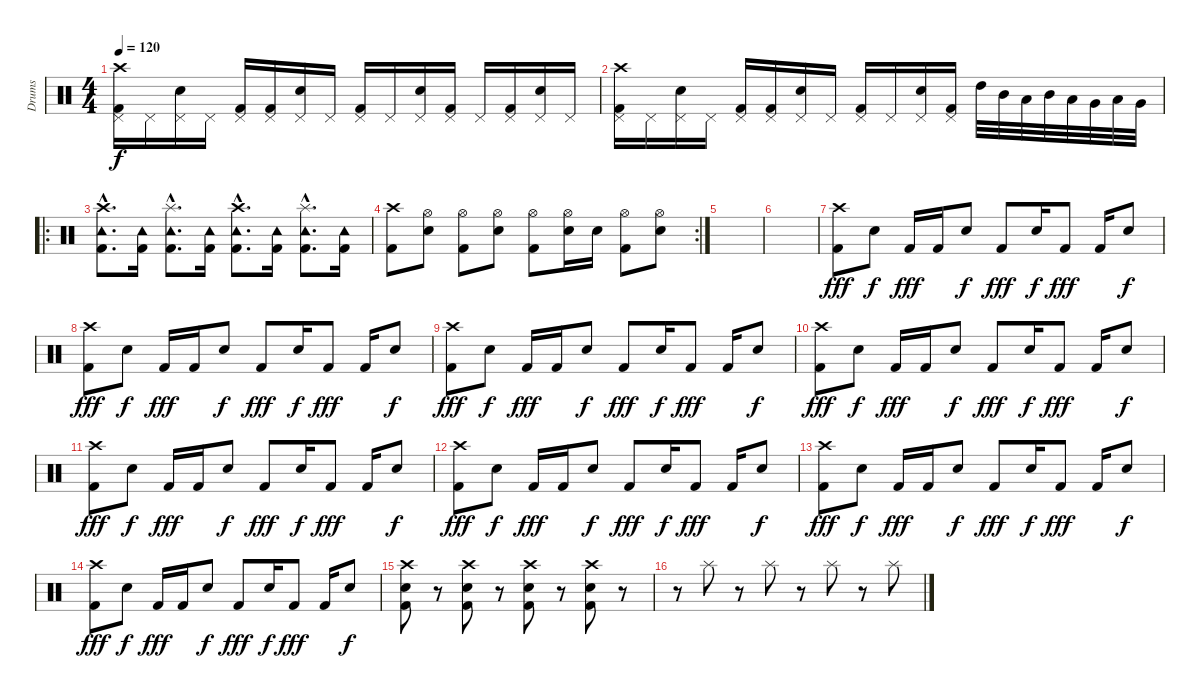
\track ("Drums" "Drums") {instrument percussion}
\staff {score}
\articulation defaults
\ts (4 4)
\tempo 120
\clef neutral
\ks c
("Crash high (hit)" "Pedal Hi-Hat (hit)" "Kick (hit) 2").16{dy f} "Pedal Hi-Hat (hit)".16 ("Pedal Hi-Hat (hit)" "Electric Snare (hit)").16 "Pedal Hi-Hat (hit)".16 ("Pedal Hi-Hat (hit)" "Kick (hit) 2").16 ("Pedal Hi-Hat (hit)" "Kick (hit) 2").16 ("Pedal Hi-Hat (hit)" "Electric Snare (hit)").16 "Pedal Hi-Hat (hit)".16 ("Pedal Hi-Hat (hit)" "Kick (hit) 2").16 "Pedal Hi-Hat (hit)".16 ("Pedal Hi-Hat (hit)" "Electric Snare (hit)").16 ("Pedal Hi-Hat (hit)" "Kick (hit) 2").16 "Pedal Hi-Hat (hit)".16 ("Pedal Hi-Hat (hit)" "Kick (hit) 2").16 ("Pedal Hi-Hat (hit)" "Electric Snare (hit)").16 "Pedal Hi-Hat (hit)".16 |
("Crash high (hit)" "Pedal Hi-Hat (hit)" "Kick (hit) 2").16 "Pedal Hi-Hat (hit)".16 ("Pedal Hi-Hat (hit)" "Electric Snare (hit)").16 "Pedal Hi-Hat (hit)".16 ("Pedal Hi-Hat (hit)" "Kick (hit) 2").16 ("Pedal Hi-Hat (hit)" "Kick (hit) 2").16 ("Pedal Hi-Hat (hit)" "Electric Snare (hit)").16 "Pedal Hi-Hat (hit)".16 ("Pedal Hi-Hat (hit)" "Kick (hit) 2").16 "Pedal Hi-Hat (hit)".16 ("Pedal Hi-Hat (hit)" "Electric Snare (hit)").16 ("Pedal Hi-Hat (hit)" "Kick (hit) 2").16 "High Tom (hit)".32 "Mid Tom (hit)".32 "Low Tom (hit)".32 "Mid Tom (hit)".32 "Low Tom (hit)".32 "Very Low Tom (hit)".32 "Low Tom (hit)".32 "Very Low Tom (hit)".32 |
\ro
("Crash high (hit)"{hac} "Kick (hit) 2"{hac} "Tambourine (hit)"{hac}).8{d} ("Kick (hit) 2" "Tambourine (hit)").16 ("Splash (hit)"{hac} "Kick (hit) 2"{hac} "Tambourine (hit)"{hac}).8{d} ("Kick (hit) 2" "Tambourine (hit)").16 ("Crash high (hit)"{hac} "Kick (hit) 2"{hac} "Tambourine (hit)"{hac}).8{d} ("Kick (hit) 2" "Tambourine (hit)").16 ("Splash (hit)"{hac} "Kick (hit) 2"{hac} "Tambourine (hit)"{hac}).8{d} ("Kick (hit) 2" "Tambourine (hit)").16 |
\rc 2
("Crash high (hit)" "Kick (hit) 2").8 ("Hi-Hat (open)" "Electric Snare (hit)").8 ("Hi-Hat (open)" "Kick (hit) 2").8 ("Hi-Hat (open)" "Electric Snare (hit)").8 ("Hi-Hat (open)" "Kick (hit) 2").8 ("Hi-Hat (open)" "Electric Snare (hit)").16 "Electric Snare (hit)".16 ("Hi-Hat (open)" "Kick (hit) 2").8 ("Hi-Hat (open)" "Electric Snare (hit)").8 |
|
|
("Crash high (hit)" "Kick (hit) 2").8{dy fff} "Electric Snare (hit)".8{dy f} "Kick (hit) 2".16{dy fff} "Kick (hit) 2".16 "Electric Snare (hit)".8{dy f} "Kick (hit) 2".8{dy fff} "Electric Snare (hit)".16{dy f} "Kick (hit) 2".8{dy fff} "Kick (hit) 2".16 "Electric Snare (hit)".8{dy f} |
("Crash high (hit)" "Kick (hit) 2").8{dy fff} "Electric Snare (hit)".8{dy f} "Kick (hit) 2".16{dy fff} "Kick (hit) 2".16 "Electric Snare (hit)".8{dy f} "Kick (hit) 2".8{dy fff} "Electric Snare (hit)".16{dy f} "Kick (hit) 2".8{dy fff} "Kick (hit) 2".16 "Electric Snare (hit)".8{dy f} |
("Crash high (hit)" "Kick (hit) 2").8{dy fff} "Electric Snare (hit)".8{dy f} "Kick (hit) 2".16{dy fff} "Kick (hit) 2".16 "Electric Snare (hit)".8{dy f} "Kick (hit) 2".8{dy fff} "Electric Snare (hit)".16{dy f} "Kick (hit) 2".8{dy fff} "Kick (hit) 2".16 "Electric Snare (hit)".8{dy f} |
("Crash high (hit)" "Kick (hit) 2").8{dy fff} "Electric Snare (hit)".8{dy f} "Kick (hit) 2".16{dy fff} "Kick (hit) 2".16 "Electric Snare (hit)".8{dy f} "Kick (hit) 2".8{dy fff} "Electric Snare (hit)".16{dy f} "Kick (hit) 2".8{dy fff} "Kick (hit) 2".16 "Electric Snare (hit)".8{dy f} |
("Crash high (hit)" "Kick (hit) 2").8{dy fff} "Electric Snare (hit)".8{dy f} "Kick (hit) 2".16{dy fff} "Kick (hit) 2".16 "Electric Snare (hit)".8{dy f} "Kick (hit) 2".8{dy fff} "Electric Snare (hit)".16{dy f} "Kick (hit) 2".8{dy fff} "Kick (hit) 2".16 "Electric Snare (hit)".8{dy f} |
("Crash high (hit)" "Kick (hit) 2").8{dy fff} "Electric Snare (hit)".8{dy f} "Kick (hit) 2".16{dy fff} "Kick (hit) 2".16 "Electric Snare (hit)".8{dy f} "Kick (hit) 2".8{dy fff} "Electric Snare (hit)".16{dy f} "Kick (hit) 2".8{dy fff} "Kick (hit) 2".16 "Electric Snare (hit)".8{dy f} |
("Crash high (hit)" "Kick (hit) 2").8{dy fff} "Electric Snare (hit)".8{dy f} "Kick (hit) 2".16{dy fff} "Kick (hit) 2".16 "Electric Snare (hit)".8{dy f} "Kick (hit) 2".8{dy fff} "Electric Snare (hit)".16{dy f} "Kick (hit) 2".8{dy fff} "Kick (hit) 2".16 "Electric Snare (hit)".8{dy f} |
("Crash high (hit)" "Kick (hit) 2").8{dy fff} "Electric Snare (hit)".8{dy f} "Kick (hit) 2".16{dy fff} "Kick (hit) 2".16 "Electric Snare (hit)".8{dy f} "Kick (hit) 2".8{dy fff} "Electric Snare (hit)".16{dy f} "Kick (hit) 2".8{dy fff} "Kick (hit) 2".16 "Electric Snare (hit)".8{dy f} |
("Electric Snare (hit)" "Kick (hit) 2" "Crash high (hit)").8 r.8 ("Electric Snare (hit)" "Kick (hit) 2" "Crash high (hit)").8 r.8 ("Electric Snare (hit)" "Kick (hit) 2" "Crash high (hit)").8 r.8 ("Electric Snare (hit)" "Kick (hit) 2" "Crash high (hit)").8 r.8 |
r.8 "Splash (hit)".8 r.8 "Splash (hit)".8 r.8 "Splash (hit)".8 r.8 "Splash (hit)".8
